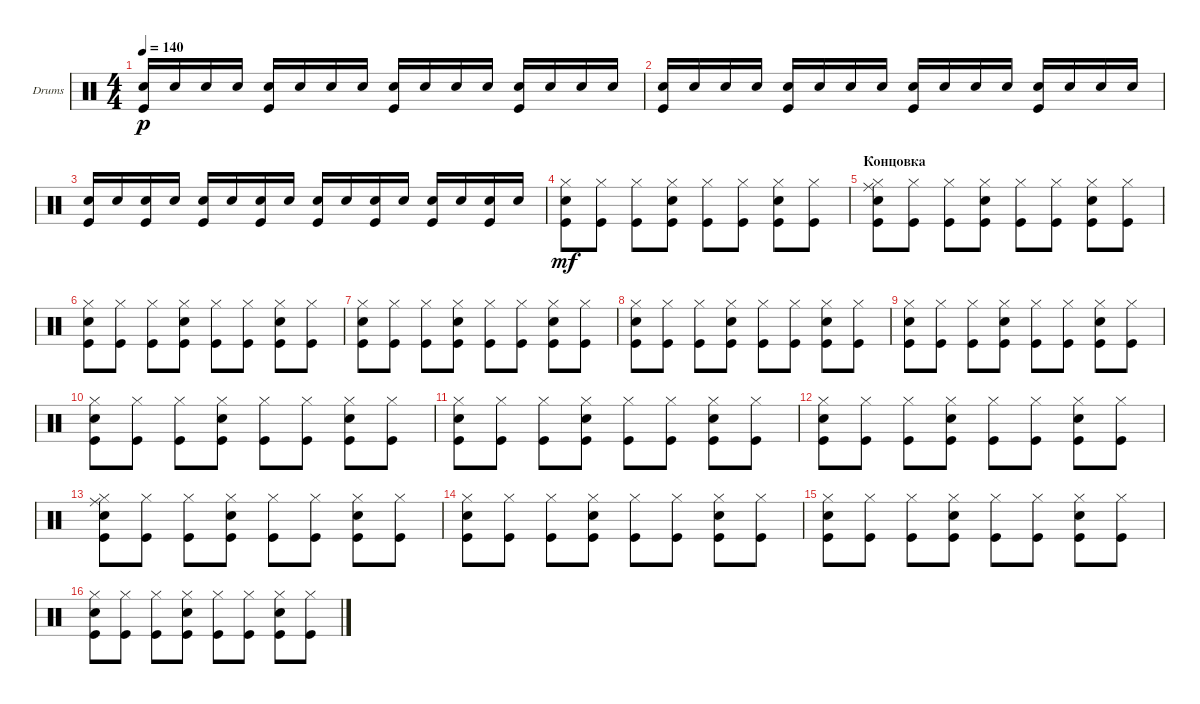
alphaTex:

\defaultSystemsLayout 4
\bracketExtendMode groupsimilarinstruments
\firstSystemTrackNameOrientation horizontal
\otherSystemsTrackNameOrientation horizontal
\track ("Ударные" "Drums") {instrument percussion}
\staff {score}
\articulation defaults
\ts (4 4)
\tempo 140
\clef neutral
\scale
0.333333
\ks c
("Snare (hit) 2" "Kick (hit)").16{dy p} "Snare (hit) 2".16 "Snare (hit) 2".16 "Snare (hit) 2".16 ("Snare (hit) 2" "Kick (hit)").16 "Snare (hit) 2".16 "Snare (hit) 2".16 "Snare (hit) 2".16 ("Snare (hit) 2" "Kick (hit)").16 "Snare (hit) 2".16 "Snare (hit) 2".16 "Snare (hit) 2".16 ("Snare (hit) 2" "Kick (hit)").16 "Snare (hit) 2".16 "Snare (hit) 2".16 "Snare (hit) 2".16 |
\scale
0.333333 ("Snare (hit) 2" "Kick (hit)").16 "Snare (hit) 2".16 "Snare (hit) 2".16 "Snare (hit) 2".16 ("Snare (hit) 2" "Kick (hit)").16 "Snare (hit) 2".16 "Snare (hit) 2".16 "Snare (hit) 2".16 ("Snare (hit) 2" "Kick (hit)").16 "Snare (hit) 2".16 "Snare (hit) 2".16 "Snare (hit) 2".16 ("Snare (hit) 2" "Kick (hit)").16 "Snare (hit) 2".16 "Snare (hit) 2".16 "Snare (hit) 2".16 |
\scale
0.333333 ("Snare (hit) 2" "Kick (hit)").16 "Snare (hit) 2".16 ("Snare (hit) 2" "Kick (hit)").16 "Snare (hit) 2".16 ("Snare (hit) 2" "Kick (hit)").16 "Snare (hit) 2".16 ("Snare (hit) 2" "Kick (hit)").16 "Snare (hit) 2".16 ("Snare (hit) 2" "Kick (hit)").16 "Snare (hit) 2".16 ("Snare (hit) 2" "Kick (hit)").16 "Snare (hit) 2".16 ("Snare (hit) 2" "Kick (hit)").16 "Snare (hit) 2".16 ("Snare (hit) 2" "Kick (hit)").16 "Snare (hit) 2".16 |
\scale
0.333333 ("Snare (hit) 2" "Hi-Hat (closed)" "Kick (hit)").8{dy mf} ("Hi-Hat (closed)" "Kick (hit)").8 ("Hi-Hat (closed)" "Kick (hit)").8 ("Snare (hit) 2" "Hi-Hat (closed)" "Kick (hit)").8 ("Hi-Hat (closed)" "Kick (hit)").8 ("Hi-Hat (closed)" "Kick (hit)").8 ("Snare (hit) 2" "Hi-Hat (closed)" "Kick (hit)").8 ("Hi-Hat (closed)" "Kick (hit)").8 |
\section ("" "Концовка")
\scale
0.333333 ("Snare (hit) 2" "Hi-Hat (closed)" "Kick (hit)" "Ride (middle)").8 ("Hi-Hat (closed)" "Kick (hit)").8 ("Hi-Hat (closed)" "Kick (hit)").8 ("Snare (hit) 2" "Hi-Hat (closed)" "Kick (hit)").8 ("Hi-Hat (closed)" "Kick (hit)").8 ("Hi-Hat (closed)" "Kick (hit)").8 ("Snare (hit) 2" "Hi-Hat (closed)" "Kick (hit)").8 ("Hi-Hat (closed)" "Kick (hit)").8 |
\scale
0.333333 ("Snare (hit) 2" "Hi-Hat (closed)" "Kick (hit)").8 ("Hi-Hat (closed)" "Kick (hit)").8 ("Hi-Hat (closed)" "Kick (hit)").8 ("Snare (hit) 2" "Hi-Hat (closed)" "Kick (hit)").8 ("Hi-Hat (closed)" "Kick (hit)").8 ("Hi-Hat (closed)" "Kick (hit)").8 ("Snare (hit) 2" "Hi-Hat (closed)" "Kick (hit)").8 ("Hi-Hat (closed)" "Kick (hit)").8 |
\scale
0.333333 ("Snare (hit) 2" "Hi-Hat (closed)" "Kick (hit)").8 ("Hi-Hat (closed)" "Kick (hit)").8 ("Hi-Hat (closed)" "Kick (hit)").8 ("Snare (hit) 2" "Hi-Hat (closed)" "Kick (hit)").8 ("Hi-Hat (closed)" "Kick (hit)").8 ("Hi-Hat (closed)" "Kick (hit)").8 ("Snare (hit) 2" "Hi-Hat (closed)" "Kick (hit)").8 ("Hi-Hat (closed)" "Kick (hit)").8 |
\scale
0.333333 ("Snare (hit) 2" "Hi-Hat (closed)" "Kick (hit)").8 ("Hi-Hat (closed)" "Kick (hit)").8 ("Hi-Hat (closed)" "Kick (hit)").8 ("Snare (hit) 2" "Hi-Hat (closed)" "Kick (hit)").8 ("Hi-Hat (closed)" "Kick (hit)").8 ("Hi-Hat (closed)" "Kick (hit)").8 ("Snare (hit) 2" "Hi-Hat (closed)" "Kick (hit)").8 ("Hi-Hat (closed)" "Kick (hit)").8 |
\scale
0.333333 ("Snare (hit) 2" "Hi-Hat (closed)" "Kick (hit)").8 ("Hi-Hat (closed)" "Kick (hit)").8 ("Hi-Hat (closed)" "Kick (hit)").8 ("Snare (hit) 2" "Hi-Hat (closed)" "Kick (hit)").8 ("Hi-Hat (closed)" "Kick (hit)").8 ("Hi-Hat (closed)" "Kick (hit)").8 ("Snare (hit) 2" "Hi-Hat (closed)" "Kick (hit)").8 ("Hi-Hat (closed)" "Kick (hit)").8 |
\scale
0.333333 ("Snare (hit) 2" "Hi-Hat (closed)" "Kick (hit)").8 ("Hi-Hat (closed)" "Kick (hit)").8 ("Hi-Hat (closed)" "Kick (hit)").8 ("Snare (hit) 2" "Hi-Hat (closed)" "Kick (hit)").8 ("Hi-Hat (closed)" "Kick (hit)").8 ("Hi-Hat (closed)" "Kick (hit)").8 ("Snare (hit) 2" "Hi-Hat (closed)" "Kick (hit)").8 ("Hi-Hat (closed)" "Kick (hit)").8 |
\scale
0.333333 ("Snare (hit) 2" "Hi-Hat (closed)" "Kick (hit)").8 ("Hi-Hat (closed)" "Kick (hit)").8 ("Hi-Hat (closed)" "Kick (hit)").8 ("Snare (hit) 2" "Hi-Hat (closed)" "Kick (hit)").8 ("Hi-Hat (closed)" "Kick (hit)").8 ("Hi-Hat (closed)" "Kick (hit)").8 ("Snare (hit) 2" "Hi-Hat (closed)" "Kick (hit)").8 ("Hi-Hat (closed)" "Kick (hit)").8 |
\scale
0.333333 ("Snare (hit) 2" "Hi-Hat (closed)" "Kick (hit)").8 ("Hi-Hat (closed)" "Kick (hit)").8 ("Hi-Hat (closed)" "Kick (hit)").8 ("Snare (hit) 2" "Hi-Hat (closed)" "Kick (hit)").8 ("Hi-Hat (closed)" "Kick (hit)").8 ("Hi-Hat (closed)" "Kick (hit)").8 ("Snare (hit) 2" "Hi-Hat (closed)" "Kick (hit)").8 ("Hi-Hat (closed)" "Kick (hit)").8 |
\scale
0.333333 ("Snare (hit) 2" "Hi-Hat (closed)" "Kick (hit)" "Ride (middle)").8 ("Hi-Hat (closed)" "Kick (hit)").8 ("Hi-Hat (closed)" "Kick (hit)").8 ("Snare (hit) 2" "Hi-Hat (closed)" "Kick (hit)").8 ("Hi-Hat (closed)" "Kick (hit)").8 ("Hi-Hat (closed)" "Kick (hit)").8 ("Snare (hit) 2" "Hi-Hat (closed)" "Kick (hit)").8 ("Hi-Hat (closed)" "Kick (hit)").8 |
\scale
0.333333 ("Snare (hit) 2" "Hi-Hat (closed)" "Kick (hit)").8 ("Hi-Hat (closed)" "Kick (hit)").8 ("Hi-Hat (closed)" "Kick (hit)").8 ("Snare (hit) 2" "Hi-Hat (closed)" "Kick (hit)").8 ("Hi-Hat (closed)" "Kick (hit)").8 ("Hi-Hat (closed)" "Kick (hit)").8 ("Snare (hit) 2" "Hi-Hat (closed)" "Kick (hit)").8 ("Hi-Hat (closed)" "Kick (hit)").8 |
\scale
0.333333 ("Snare (hit) 2" "Hi-Hat (closed)" "Kick (hit)").8 ("Hi-Hat (closed)" "Kick (hit)").8 ("Hi-Hat (closed)" "Kick (hit)").8 ("Snare (hit) 2" "Hi-Hat (closed)" "Kick (hit)").8 ("Hi-Hat (closed)" "Kick (hit)").8 ("Hi-Hat (closed)" "Kick (hit)").8 ("Snare (hit) 2" "Hi-Hat (closed)" "Kick (hit)").8 ("Hi-Hat (closed)" "Kick (hit)").8 |
\scale
0.333333 ("Snare (hit) 2" "Hi-Hat (closed)" "Kick (hit)").8 ("Hi-Hat (closed)" "Kick (hit)").8 ("Hi-Hat (closed)" "Kick (hit)").8 ("Snare (hit) 2" "Hi-Hat (closed)" "Kick (hit)").8 ("Hi-Hat (closed)" "Kick (hit)").8 ("Hi-Hat (closed)" "Kick (hit)").8 ("Snare (hit) 2" "Hi-Hat (closed)" "Kick (hit)").8 ("Hi-Hat (closed)" "Kick (hit)").8
